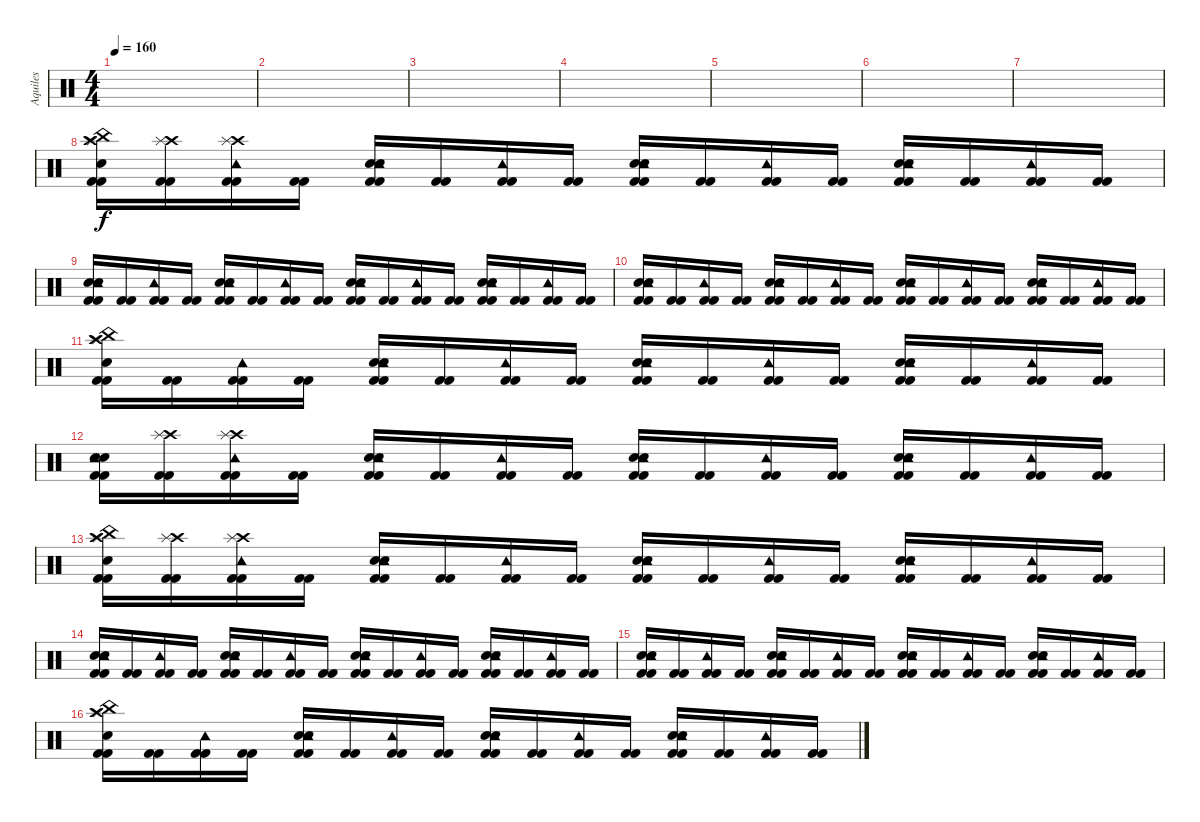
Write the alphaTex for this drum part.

\track ("Aquiles" "Aquiles") {instrument percussion}
\staff {score}
\articulation defaults
\ts (4 4)
\tempo 160
\clef neutral
\ks c
|
|
|
|
|
|
|
("Kick (hit) 2" "Kick (hit) 2" "Electric Snare (hit)" "Crash high (hit)" "Splash (hit)" "China (hit)").16 ("Kick (hit) 2" "Kick (hit) 2" "Crash high (hit)" "Splash (hit)").16 ("Kick (hit) 2" "Kick (hit) 2" "Crash high (hit)" "Tambourine (hit)" "Splash (hit)").16 ("Kick (hit) 2" "Kick (hit) 2").16 ("Kick (hit) 2" "Kick (hit) 2" "Electric Snare (hit)" "Electric Snare (hit)" "Tambourine (hit)").16 ("Kick (hit) 2" "Kick (hit) 2").16 ("Kick (hit) 2" "Kick (hit) 2" "Tambourine (hit)").16 ("Kick (hit) 2" "Kick (hit) 2").16 ("Kick (hit) 2" "Kick (hit) 2" "Electric Snare (hit)" "Electric Snare (hit)" "Tambourine (hit)").16 ("Kick (hit) 2" "Kick (hit) 2").16 ("Kick (hit) 2" "Kick (hit) 2" "Tambourine (hit)").16 ("Kick (hit) 2" "Kick (hit) 2").16 ("Kick (hit) 2" "Kick (hit) 2" "Electric Snare (hit)" "Electric Snare (hit)" "Tambourine (hit)").16 ("Kick (hit) 2" "Kick (hit) 2").16 ("Kick (hit) 2" "Kick (hit) 2" "Tambourine (hit)").16 ("Kick (hit) 2" "Kick (hit) 2").16 |
("Kick (hit) 2" "Kick (hit) 2" "Electric Snare (hit)" "Electric Snare (hit)" "Tambourine (hit)").16 ("Kick (hit) 2" "Kick (hit) 2").16 ("Kick (hit) 2" "Kick (hit) 2" "Tambourine (hit)").16 ("Kick (hit) 2" "Kick (hit) 2").16 ("Kick (hit) 2" "Kick (hit) 2" "Electric Snare (hit)" "Electric Snare (hit)" "Tambourine (hit)").16 ("Kick (hit) 2" "Kick (hit) 2").16 ("Kick (hit) 2" "Kick (hit) 2" "Tambourine (hit)").16 ("Kick (hit) 2" "Kick (hit) 2").16 ("Kick (hit) 2" "Kick (hit) 2" "Electric Snare (hit)" "Electric Snare (hit)" "Tambourine (hit)").16 ("Kick (hit) 2" "Kick (hit) 2").16 ("Kick (hit) 2" "Kick (hit) 2" "Tambourine (hit)").16 ("Kick (hit) 2" "Kick (hit) 2").16 ("Kick (hit) 2" "Kick (hit) 2" "Electric Snare (hit)" "Electric Snare (hit)" "Tambourine (hit)").16 ("Kick (hit) 2" "Kick (hit) 2").16 ("Kick (hit) 2" "Kick (hit) 2" "Tambourine (hit)").16 ("Kick (hit) 2" "Kick (hit) 2").16 |
("Kick (hit) 2" "Kick (hit) 2" "Electric Snare (hit)" "Electric Snare (hit)" "Tambourine (hit)").16 ("Kick (hit) 2" "Kick (hit) 2").16 ("Kick (hit) 2" "Kick (hit) 2" "Tambourine (hit)").16 ("Kick (hit) 2" "Kick (hit) 2").16 ("Kick (hit) 2" "Kick (hit) 2" "Electric Snare (hit)" "Electric Snare (hit)" "Tambourine (hit)").16 ("Kick (hit) 2" "Kick (hit) 2").16 ("Kick (hit) 2" "Kick (hit) 2" "Tambourine (hit)").16 ("Kick (hit) 2" "Kick (hit) 2").16 ("Kick (hit) 2" "Kick (hit) 2" "Electric Snare (hit)" "Electric Snare (hit)" "Tambourine (hit)").16 ("Kick (hit) 2" "Kick (hit) 2").16 ("Kick (hit) 2" "Kick (hit) 2" "Tambourine (hit)").16 ("Kick (hit) 2" "Kick (hit) 2").16 ("Kick (hit) 2" "Kick (hit) 2" "Electric Snare (hit)" "Electric Snare (hit)" "Tambourine (hit)").16 ("Kick (hit) 2" "Kick (hit) 2").16 ("Kick (hit) 2" "Kick (hit) 2" "Tambourine (hit)").16 ("Kick (hit) 2" "Kick (hit) 2").16 |
("Kick (hit) 2" "Kick (hit) 2" "Electric Snare (hit)" "Crash high (hit)" "Splash (hit)" "China (hit)").16 ("Kick (hit) 2" "Kick (hit) 2").16 ("Kick (hit) 2" "Kick (hit) 2" "Tambourine (hit)").16 ("Kick (hit) 2" "Kick (hit) 2").16 ("Kick (hit) 2" "Kick (hit) 2" "Electric Snare (hit)" "Electric Snare (hit)" "Tambourine (hit)").16 ("Kick (hit) 2" "Kick (hit) 2").16 ("Kick (hit) 2" "Kick (hit) 2" "Tambourine (hit)").16 ("Kick (hit) 2" "Kick (hit) 2").16 ("Kick (hit) 2" "Kick (hit) 2" "Electric Snare (hit)" "Electric Snare (hit)" "Tambourine (hit)").16 ("Kick (hit) 2" "Kick (hit) 2").16 ("Kick (hit) 2" "Kick (hit) 2" "Tambourine (hit)").16 ("Kick (hit) 2" "Kick (hit) 2").16 ("Kick (hit) 2" "Kick (hit) 2" "Electric Snare (hit)" "Electric Snare (hit)" "Tambourine (hit)").16 ("Kick (hit) 2" "Kick (hit) 2").16 ("Kick (hit) 2" "Kick (hit) 2" "Tambourine (hit)").16 ("Kick (hit) 2" "Kick (hit) 2").16 |
("Kick (hit) 2" "Kick (hit) 2" "Electric Snare (hit)" "Electric Snare (hit)" "Tambourine (hit)").16 ("Kick (hit) 2" "Kick (hit) 2" "Crash high (hit)" "Splash (hit)").16 ("Kick (hit) 2" "Kick (hit) 2" "Crash high (hit)" "Tambourine (hit)" "Splash (hit)").16 ("Kick (hit) 2" "Kick (hit) 2").16 ("Kick (hit) 2" "Kick (hit) 2" "Electric Snare (hit)" "Electric Snare (hit)" "Tambourine (hit)").16 ("Kick (hit) 2" "Kick (hit) 2").16 ("Kick (hit) 2" "Kick (hit) 2" "Tambourine (hit)").16 ("Kick (hit) 2" "Kick (hit) 2").16 ("Kick (hit) 2" "Kick (hit) 2" "Electric Snare (hit)" "Electric Snare (hit)" "Tambourine (hit)").16 ("Kick (hit) 2" "Kick (hit) 2").16 ("Kick (hit) 2" "Kick (hit) 2" "Tambourine (hit)").16 ("Kick (hit) 2" "Kick (hit) 2").16 ("Kick (hit) 2" "Kick (hit) 2" "Electric Snare (hit)" "Electric Snare (hit)" "Tambourine (hit)").16 ("Kick (hit) 2" "Kick (hit) 2").16 ("Kick (hit) 2" "Kick (hit) 2" "Tambourine (hit)").16 ("Kick (hit) 2" "Kick (hit) 2").16 |
("Kick (hit) 2" "Kick (hit) 2" "Electric Snare (hit)" "Crash high (hit)" "Splash (hit)" "China (hit)").16 ("Kick (hit) 2" "Kick (hit) 2" "Crash high (hit)" "Splash (hit)").16 ("Kick (hit) 2" "Kick (hit) 2" "Crash high (hit)" "Tambourine (hit)" "Splash (hit)").16 ("Kick (hit) 2" "Kick (hit) 2").16 ("Kick (hit) 2" "Kick (hit) 2" "Electric Snare (hit)" "Electric Snare (hit)" "Tambourine (hit)").16 ("Kick (hit) 2" "Kick (hit) 2").16 ("Kick (hit) 2" "Kick (hit) 2" "Tambourine (hit)").16 ("Kick (hit) 2" "Kick (hit) 2").16 ("Kick (hit) 2" "Kick (hit) 2" "Electric Snare (hit)" "Electric Snare (hit)" "Tambourine (hit)").16 ("Kick (hit) 2" "Kick (hit) 2").16 ("Kick (hit) 2" "Kick (hit) 2" "Tambourine (hit)").16 ("Kick (hit) 2" "Kick (hit) 2").16 ("Kick (hit) 2" "Kick (hit) 2" "Electric Snare (hit)" "Electric Snare (hit)" "Tambourine (hit)").16 ("Kick (hit) 2" "Kick (hit) 2").16 ("Kick (hit) 2" "Kick (hit) 2" "Tambourine (hit)").16 ("Kick (hit) 2" "Kick (hit) 2").16 |
("Kick (hit) 2" "Kick (hit) 2" "Electric Snare (hit)" "Electric Snare (hit)" "Tambourine (hit)").16 ("Kick (hit) 2" "Kick (hit) 2").16 ("Kick (hit) 2" "Kick (hit) 2" "Tambourine (hit)").16 ("Kick (hit) 2" "Kick (hit) 2").16 ("Kick (hit) 2" "Kick (hit) 2" "Electric Snare (hit)" "Electric Snare (hit)" "Tambourine (hit)").16 ("Kick (hit) 2" "Kick (hit) 2").16 ("Kick (hit) 2" "Kick (hit) 2" "Tambourine (hit)").16 ("Kick (hit) 2" "Kick (hit) 2").16 ("Kick (hit) 2" "Kick (hit) 2" "Electric Snare (hit)" "Electric Snare (hit)" "Tambourine (hit)").16 ("Kick (hit) 2" "Kick (hit) 2").16 ("Kick (hit) 2" "Kick (hit) 2" "Tambourine (hit)").16 ("Kick (hit) 2" "Kick (hit) 2").16 ("Kick (hit) 2" "Kick (hit) 2" "Electric Snare (hit)" "Electric Snare (hit)" "Tambourine (hit)").16 ("Kick (hit) 2" "Kick (hit) 2").16 ("Kick (hit) 2" "Kick (hit) 2" "Tambourine (hit)").16 ("Kick (hit) 2" "Kick (hit) 2").16 |
("Kick (hit) 2" "Kick (hit) 2" "Electric Snare (hit)" "Electric Snare (hit)" "Tambourine (hit)").16 ("Kick (hit) 2" "Kick (hit) 2").16 ("Kick (hit) 2" "Kick (hit) 2" "Tambourine (hit)").16 ("Kick (hit) 2" "Kick (hit) 2").16 ("Kick (hit) 2" "Kick (hit) 2" "Electric Snare (hit)" "Electric Snare (hit)" "Tambourine (hit)").16 ("Kick (hit) 2" "Kick (hit) 2").16 ("Kick (hit) 2" "Kick (hit) 2" "Tambourine (hit)").16 ("Kick (hit) 2" "Kick (hit) 2").16 ("Kick (hit) 2" "Kick (hit) 2" "Electric Snare (hit)" "Electric Snare (hit)" "Tambourine (hit)").16 ("Kick (hit) 2" "Kick (hit) 2").16 ("Kick (hit) 2" "Kick (hit) 2" "Tambourine (hit)").16 ("Kick (hit) 2" "Kick (hit) 2").16 ("Kick (hit) 2" "Kick (hit) 2" "Electric Snare (hit)" "Electric Snare (hit)" "Tambourine (hit)").16 ("Kick (hit) 2" "Kick (hit) 2").16 ("Kick (hit) 2" "Kick (hit) 2" "Tambourine (hit)").16 ("Kick (hit) 2" "Kick (hit) 2").16 |
("Kick (hit) 2" "Kick (hit) 2" "Electric Snare (hit)" "Crash high (hit)" "Splash (hit)" "China (hit)").16 ("Kick (hit) 2" "Kick (hit) 2").16 ("Kick (hit) 2" "Kick (hit) 2" "Tambourine (hit)").16 ("Kick (hit) 2" "Kick (hit) 2").16 ("Kick (hit) 2" "Kick (hit) 2" "Electric Snare (hit)" "Electric Snare (hit)" "Tambourine (hit)").16 ("Kick (hit) 2" "Kick (hit) 2").16 ("Kick (hit) 2" "Kick (hit) 2" "Tambourine (hit)").16 ("Kick (hit) 2" "Kick (hit) 2").16 ("Kick (hit) 2" "Kick (hit) 2" "Electric Snare (hit)" "Electric Snare (hit)" "Tambourine (hit)").16 ("Kick (hit) 2" "Kick (hit) 2").16 ("Kick (hit) 2" "Kick (hit) 2" "Tambourine (hit)").16 ("Kick (hit) 2" "Kick (hit) 2").16 ("Kick (hit) 2" "Kick (hit) 2" "Electric Snare (hit)" "Electric Snare (hit)" "Tambourine (hit)").16 ("Kick (hit) 2" "Kick (hit) 2").16 ("Kick (hit) 2" "Kick (hit) 2" "Tambourine (hit)").16 ("Kick (hit) 2" "Kick (hit) 2").16
